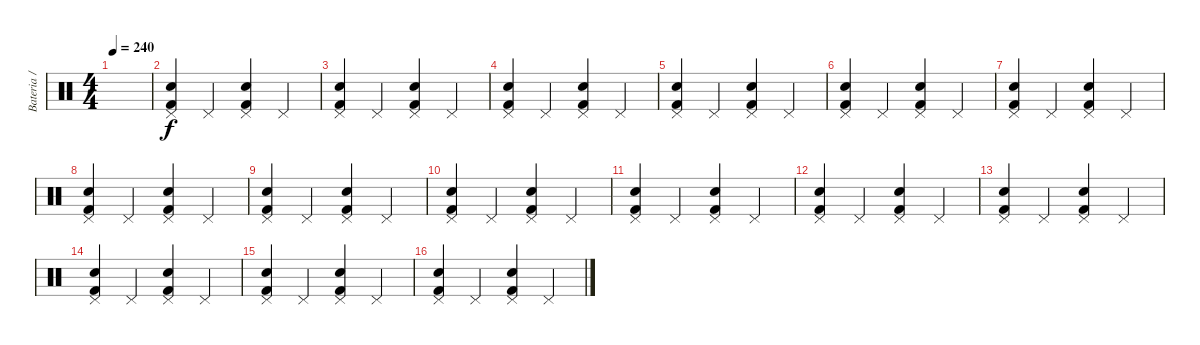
\track ("Bateria / Percusión" "Bateria / ") {instrument percussion}
\staff {score}
\articulation defaults
\ts (4 4)
\tempo 240
\clef neutral
\ks c
|
("Kick (hit) 2" "Pedal Hi-Hat (hit)" "Snare (hit) 2").4 "Pedal Hi-Hat (hit)".4 ("Kick (hit) 2" "Pedal Hi-Hat (hit)" "Snare (hit) 2").4 "Pedal Hi-Hat (hit)".4 |
("Kick (hit) 2" "Pedal Hi-Hat (hit)" "Snare (hit) 2").4 "Pedal Hi-Hat (hit)".4 ("Kick (hit) 2" "Pedal Hi-Hat (hit)" "Snare (hit) 2").4 "Pedal Hi-Hat (hit)".4 |
("Kick (hit) 2" "Pedal Hi-Hat (hit)" "Snare (hit) 2").4 "Pedal Hi-Hat (hit)".4 ("Kick (hit) 2" "Pedal Hi-Hat (hit)" "Snare (hit) 2").4 "Pedal Hi-Hat (hit)".4 |
("Kick (hit) 2" "Pedal Hi-Hat (hit)" "Snare (hit) 2").4 "Pedal Hi-Hat (hit)".4 ("Kick (hit) 2" "Pedal Hi-Hat (hit)" "Snare (hit) 2").4 "Pedal Hi-Hat (hit)".4 |
("Kick (hit) 2" "Pedal Hi-Hat (hit)" "Snare (hit) 2").4 "Pedal Hi-Hat (hit)".4 ("Kick (hit) 2" "Pedal Hi-Hat (hit)" "Snare (hit) 2").4 "Pedal Hi-Hat (hit)".4 |
("Kick (hit) 2" "Pedal Hi-Hat (hit)" "Snare (hit) 2").4 "Pedal Hi-Hat (hit)".4 ("Kick (hit) 2" "Pedal Hi-Hat (hit)" "Snare (hit) 2").4 "Pedal Hi-Hat (hit)".4 |
("Kick (hit) 2" "Pedal Hi-Hat (hit)" "Snare (hit) 2").4 "Pedal Hi-Hat (hit)".4 ("Kick (hit) 2" "Pedal Hi-Hat (hit)" "Snare (hit) 2").4 "Pedal Hi-Hat (hit)".4 |
("Kick (hit) 2" "Pedal Hi-Hat (hit)" "Snare (hit) 2").4 "Pedal Hi-Hat (hit)".4 ("Kick (hit) 2" "Pedal Hi-Hat (hit)" "Snare (hit) 2").4 "Pedal Hi-Hat (hit)".4 |
("Kick (hit) 2" "Pedal Hi-Hat (hit)" "Snare (hit) 2").4 "Pedal Hi-Hat (hit)".4 ("Kick (hit) 2" "Pedal Hi-Hat (hit)" "Snare (hit) 2").4 "Pedal Hi-Hat (hit)".4 |
("Kick (hit) 2" "Pedal Hi-Hat (hit)" "Snare (hit) 2").4 "Pedal Hi-Hat (hit)".4 ("Kick (hit) 2" "Pedal Hi-Hat (hit)" "Snare (hit) 2").4 "Pedal Hi-Hat (hit)".4 |
("Kick (hit) 2" "Pedal Hi-Hat (hit)" "Snare (hit) 2").4 "Pedal Hi-Hat (hit)".4 ("Kick (hit) 2" "Pedal Hi-Hat (hit)" "Snare (hit) 2").4 "Pedal Hi-Hat (hit)".4 |
("Kick (hit) 2" "Pedal Hi-Hat (hit)" "Snare (hit) 2").4 "Pedal Hi-Hat (hit)".4 ("Kick (hit) 2" "Pedal Hi-Hat (hit)" "Snare (hit) 2").4 "Pedal Hi-Hat (hit)".4 |
("Kick (hit) 2" "Pedal Hi-Hat (hit)" "Snare (hit) 2").4 "Pedal Hi-Hat (hit)".4 ("Kick (hit) 2" "Pedal Hi-Hat (hit)" "Snare (hit) 2").4 "Pedal Hi-Hat (hit)".4 |
("Kick (hit) 2" "Pedal Hi-Hat (hit)" "Snare (hit) 2").4 "Pedal Hi-Hat (hit)".4 ("Kick (hit) 2" "Pedal Hi-Hat (hit)" "Snare (hit) 2").4 "Pedal Hi-Hat (hit)".4 |
("Kick (hit) 2" "Pedal Hi-Hat (hit)" "Snare (hit) 2").4 "Pedal Hi-Hat (hit)".4 ("Kick (hit) 2" "Pedal Hi-Hat (hit)" "Snare (hit) 2").4 "Pedal Hi-Hat (hit)".4
